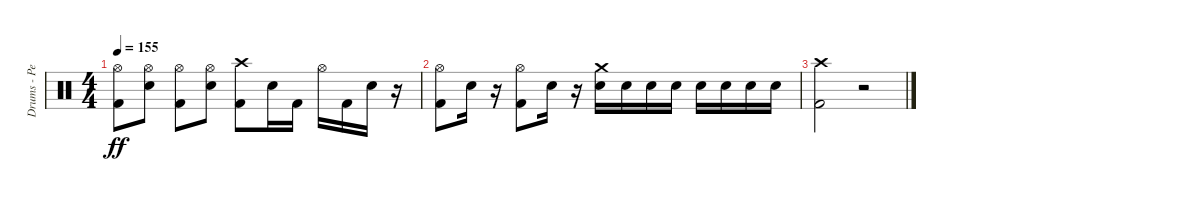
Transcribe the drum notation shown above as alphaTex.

\track ("Drums - Pete Finestone" "Drums - Pe") {instrument percussion}
\staff {score}
\articulation defaults
\ts (4 4)
\tempo 155
\clef neutral
\ks c
("Kick (hit) 2" "Hi-Hat (open)").8{dy ff} ("Electric Snare (hit)" "Hi-Hat (open)").8 ("Kick (hit) 2" "Hi-Hat (open)").8 ("Electric Snare (hit)" "Hi-Hat (open)").8 ("Kick (hit) 2" "Crash high (hit)").8 "Electric Snare (hit)".16 "Kick (hit) 2".16 "Hi-Hat (open)".16 "Kick (hit) 2".16 "Electric Snare (hit)".16 r.16 |
("Kick (hit) 2" "Hi-Hat (open)").8 "Electric Snare (hit)".16 r.16 ("Kick (hit) 2" "Hi-Hat (open)").8 "Electric Snare (hit)".16 r.16 ("Electric Snare (hit)" "Crash medium (hit)").16 "Electric Snare (hit)".16 "Electric Snare (hit)".16 "Electric Snare (hit)".16 "Electric Snare (hit)".16 "Electric Snare (hit)".16 "Electric Snare (hit)".16 "Electric Snare (hit)".16 |
("Kick (hit) 2" "Crash high (hit)").2 r.2
